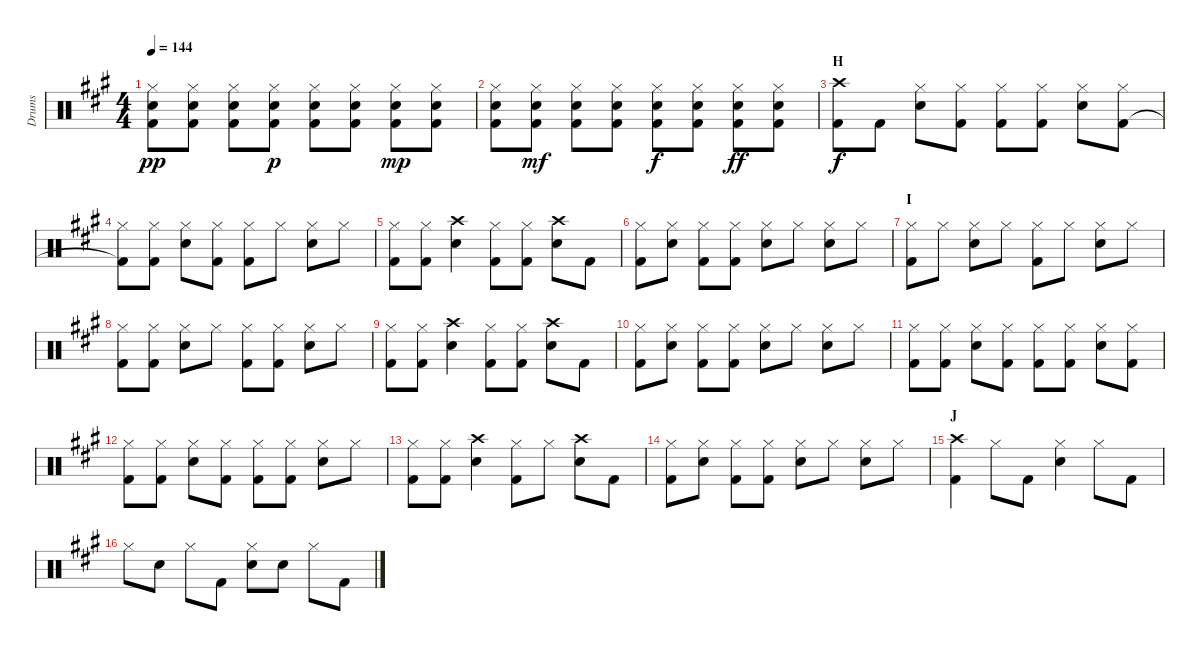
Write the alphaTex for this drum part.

\track ("Drums" "Drums") {instrument percussion}
\staff {score}
\articulation defaults
\ts (4 4)
\tempo 144
\clef neutral
\ks a
("Hi-Hat (closed)" "Snare (hit) 2" "Kick (hit) 2").8{dy pp} ("Hi-Hat (closed)" "Snare (hit) 2" "Kick (hit) 2").8 ("Hi-Hat (closed)" "Snare (hit) 2" "Kick (hit) 2").8 ("Hi-Hat (closed)" "Snare (hit) 2" "Kick (hit) 2").8{dy p} ("Hi-Hat (closed)" "Snare (hit) 2" "Kick (hit) 2").8 ("Hi-Hat (closed)" "Snare (hit) 2" "Kick (hit) 2").8 ("Hi-Hat (closed)" "Snare (hit) 2" "Kick (hit) 2").8{dy mp} ("Hi-Hat (closed)" "Snare (hit) 2" "Kick (hit) 2").8 |
("Hi-Hat (closed)" "Snare (hit) 2" "Kick (hit) 2").8 ("Hi-Hat (closed)" "Snare (hit) 2" "Kick (hit) 2").8{dy mf} ("Hi-Hat (closed)" "Snare (hit) 2" "Kick (hit) 2").8 ("Hi-Hat (closed)" "Snare (hit) 2" "Kick (hit) 2").8 ("Hi-Hat (closed)" "Snare (hit) 2" "Kick (hit) 2").8{dy f} ("Hi-Hat (closed)" "Snare (hit) 2" "Kick (hit) 2").8 ("Hi-Hat (closed)" "Snare (hit) 2" "Kick (hit) 2").8{dy ff} ("Hi-Hat (closed)" "Snare (hit) 2" "Kick (hit) 2").8 |
\section ("" "H")
("Crash high (hit)" "Kick (hit) 2").8{dy f} "Kick (hit) 2".8 ("Hi-Hat (closed)" "Snare (hit) 2").8 ("Hi-Hat (closed)" "Kick (hit) 2").8 ("Hi-Hat (closed)" "Kick (hit) 2").8 ("Hi-Hat (closed)" "Kick (hit) 2").8 ("Hi-Hat (closed)" "Snare (hit) 2").8 ("Hi-Hat (closed)" "Kick (hit) 2").8 |
("Hi-Hat (closed)" "Kick (hit) 2"{t}).8 ("Hi-Hat (closed)" "Kick (hit) 2").8 ("Hi-Hat (closed)" "Snare (hit) 2").8 ("Hi-Hat (closed)" "Kick (hit) 2").8 ("Hi-Hat (closed)" "Kick (hit) 2").8 "Hi-Hat (closed)".8 ("Hi-Hat (closed)" "Snare (hit) 2").8 "Hi-Hat (closed)".8 |
("Hi-Hat (closed)" "Kick (hit) 2").8 ("Hi-Hat (closed)" "Kick (hit) 2").8 ("Crash high (hit)" "Snare (hit) 2").4 ("Hi-Hat (closed)" "Kick (hit) 2").8 ("Hi-Hat (closed)" "Kick (hit) 2").8 ("Crash high (hit)" "Snare (hit) 2").8 "Kick (hit) 2".8 |
("Hi-Hat (closed)" "Kick (hit) 2").8 ("Hi-Hat (closed)" "Snare (hit) 2").8 ("Hi-Hat (closed)" "Kick (hit) 2").8 ("Hi-Hat (closed)" "Kick (hit) 2").8 ("Hi-Hat (closed)" "Snare (hit) 2").8 "Hi-Hat (closed)".8 ("Hi-Hat (closed)" "Snare (hit) 2").8 "Hi-Hat (closed)".8 |
\section ("" "I")
("Hi-Hat (closed)" "Kick (hit) 2").8 "Hi-Hat (closed)".8 ("Hi-Hat (closed)" "Snare (hit) 2").8 "Hi-Hat (closed)".8 ("Hi-Hat (closed)" "Kick (hit) 2").8 "Hi-Hat (closed)".8 ("Hi-Hat (closed)" "Snare (hit) 2").8 "Hi-Hat (closed)".8 |
("Hi-Hat (closed)" "Kick (hit) 2").8 ("Hi-Hat (closed)" "Kick (hit) 2").8 ("Hi-Hat (closed)" "Snare (hit) 2").8 "Hi-Hat (closed)".8 ("Hi-Hat (closed)" "Kick (hit) 2").8 ("Hi-Hat (closed)" "Kick (hit) 2").8 ("Hi-Hat (closed)" "Snare (hit) 2").8 "Hi-Hat (closed)".8 |
("Hi-Hat (closed)" "Kick (hit) 2").8 ("Hi-Hat (closed)" "Kick (hit) 2").8 ("Crash high (hit)" "Snare (hit) 2").4 ("Hi-Hat (closed)" "Kick (hit) 2").8 ("Hi-Hat (closed)" "Kick (hit) 2").8 ("Crash high (hit)" "Snare (hit) 2").8 "Kick (hit) 2".8 |
("Hi-Hat (closed)" "Kick (hit) 2").8 ("Hi-Hat (closed)" "Snare (hit) 2").8 ("Hi-Hat (closed)" "Kick (hit) 2").8 ("Hi-Hat (closed)" "Kick (hit) 2").8 ("Hi-Hat (closed)" "Snare (hit) 2").8 "Hi-Hat (closed)".8 ("Hi-Hat (closed)" "Snare (hit) 2").8 "Hi-Hat (closed)".8 |
("Hi-Hat (closed)" "Kick (hit) 2").8 ("Hi-Hat (closed)" "Kick (hit) 2").8 ("Hi-Hat (closed)" "Snare (hit) 2").8 ("Hi-Hat (closed)" "Kick (hit) 2").8 ("Hi-Hat (closed)" "Kick (hit) 2").8 ("Hi-Hat (closed)" "Kick (hit) 2").8 ("Hi-Hat (closed)" "Snare (hit) 2").8 ("Hi-Hat (closed)" "Kick (hit) 2").8 |
("Hi-Hat (closed)" "Kick (hit) 2").8 ("Hi-Hat (closed)" "Kick (hit) 2").8 ("Hi-Hat (closed)" "Snare (hit) 2").8 ("Hi-Hat (closed)" "Kick (hit) 2").8 ("Hi-Hat (closed)" "Kick (hit) 2").8 ("Hi-Hat (closed)" "Kick (hit) 2").8 ("Hi-Hat (closed)" "Snare (hit) 2").8 "Hi-Hat (closed)".8 |
("Hi-Hat (closed)" "Kick (hit) 2").8 ("Hi-Hat (closed)" "Kick (hit) 2").8 ("Crash high (hit)" "Snare (hit) 2").4 ("Hi-Hat (closed)" "Kick (hit) 2").8 "Hi-Hat (closed)".8 ("Crash high (hit)" "Snare (hit) 2").8 "Kick (hit) 2".8 |
("Hi-Hat (closed)" "Kick (hit) 2").8 ("Hi-Hat (closed)" "Snare (hit) 2").8 ("Hi-Hat (closed)" "Kick (hit) 2").8 ("Hi-Hat (closed)" "Kick (hit) 2").8 ("Hi-Hat (closed)" "Snare (hit) 2").8 "Hi-Hat (closed)".8 ("Hi-Hat (closed)" "Snare (hit) 2").8 "Hi-Hat (closed)".8 |
\section ("" "J")
("Crash high (hit)" "Kick (hit) 2").4 "Hi-Hat (closed)".8 "Kick (hit) 2".8 ("Hi-Hat (closed)" "Snare (hit) 2").4 "Hi-Hat (closed)".8 "Kick (hit) 2".8 |
"Hi-Hat (closed)".8 "Snare (hit) 2".8 "Hi-Hat (closed)".8 "Kick (hit) 2".8 ("Hi-Hat (closed)" "Snare (hit) 2").8 "Snare (hit) 2".8 "Hi-Hat (closed)".8 "Kick (hit) 2".8
